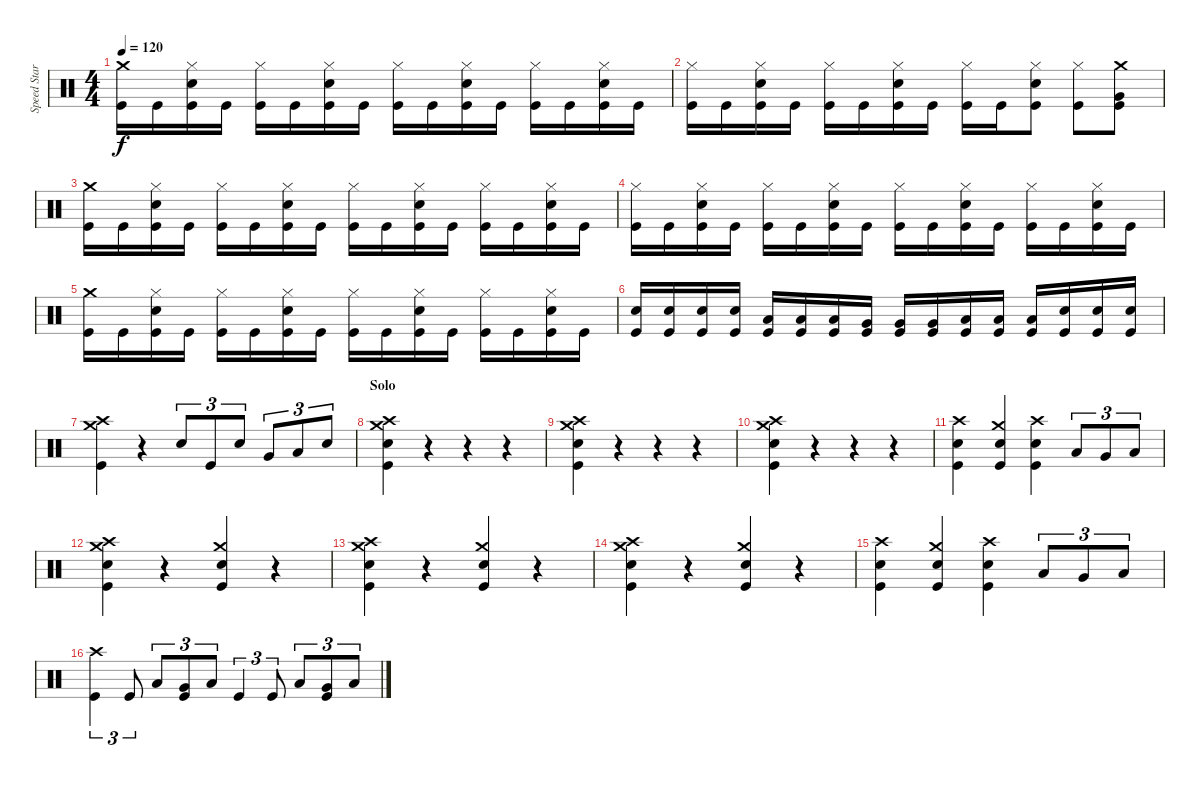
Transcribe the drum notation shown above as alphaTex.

\track ("Speed Star" "Speed Star") {instrument percussion}
\staff {score}
\articulation defaults
\ts (4 4)
\tempo 120
\clef neutral
\ks c
("Kick (hit)" "Crash medium (hit)").16{dy f} "Kick (hit)".16 ("Kick (hit)" "Snare (hit) 2" "Hi-Hat (closed)").16 "Kick (hit)".16 ("Kick (hit)" "Hi-Hat (closed)").16 "Kick (hit)".16 ("Kick (hit)" "Snare (hit) 2" "Hi-Hat (closed)").16 "Kick (hit)".16 ("Kick (hit)" "Hi-Hat (closed)").16 "Kick (hit)".16 ("Kick (hit)" "Snare (hit) 2" "Hi-Hat (closed)").16 "Kick (hit)".16 ("Kick (hit)" "Hi-Hat (closed)").16 "Kick (hit)".16 ("Kick (hit)" "Snare (hit) 2" "Hi-Hat (closed)").16 "Kick (hit)".16 |
("Kick (hit)" "Hi-Hat (closed)").16 "Kick (hit)".16 ("Kick (hit)" "Snare (hit) 2" "Hi-Hat (closed)").16 "Kick (hit)".16 ("Kick (hit)" "Hi-Hat (closed)").16 "Kick (hit)".16 ("Kick (hit)" "Snare (hit) 2" "Hi-Hat (closed)").16 "Kick (hit)".16 ("Kick (hit)" "Hi-Hat (closed)").16 "Kick (hit)".16 ("Kick (hit)" "Snare (hit) 2" "Hi-Hat (closed)").8 ("Kick (hit)" "Hi-Hat (closed)").8 ("Kick (hit)" "Very Low Tom (hit)" "Crash medium (hit)").8 |
("Kick (hit)" "Crash medium (hit)").16 "Kick (hit)".16 ("Kick (hit)" "Snare (hit) 2" "Hi-Hat (closed)").16 "Kick (hit)".16 ("Kick (hit)" "Hi-Hat (closed)").16 "Kick (hit)".16 ("Kick (hit)" "Snare (hit) 2" "Hi-Hat (closed)").16 "Kick (hit)".16 ("Kick (hit)" "Hi-Hat (closed)").16 "Kick (hit)".16 ("Kick (hit)" "Snare (hit) 2" "Hi-Hat (closed)").16 "Kick (hit)".16 ("Kick (hit)" "Hi-Hat (closed)").16 "Kick (hit)".16 ("Kick (hit)" "Snare (hit) 2" "Hi-Hat (closed)").16 "Kick (hit)".16 |
("Kick (hit)" "Hi-Hat (closed)").16 "Kick (hit)".16 ("Kick (hit)" "Snare (hit) 2" "Hi-Hat (closed)").16 "Kick (hit)".16 ("Kick (hit)" "Hi-Hat (closed)").16 "Kick (hit)".16 ("Kick (hit)" "Snare (hit) 2" "Hi-Hat (closed)").16 "Kick (hit)".16 ("Kick (hit)" "Hi-Hat (closed)").16 "Kick (hit)".16 ("Kick (hit)" "Snare (hit) 2" "Hi-Hat (closed)").16 "Kick (hit)".16 ("Kick (hit)" "Hi-Hat (closed)").16 "Kick (hit)".16 ("Kick (hit)" "Snare (hit) 2" "Hi-Hat (closed)").16 "Kick (hit)".16 |
("Kick (hit)" "Crash medium (hit)").16 "Kick (hit)".16 ("Kick (hit)" "Snare (hit) 2" "Hi-Hat (closed)").16 "Kick (hit)".16 ("Kick (hit)" "Hi-Hat (closed)").16 "Kick (hit)".16 ("Kick (hit)" "Snare (hit) 2" "Hi-Hat (closed)").16 "Kick (hit)".16 ("Kick (hit)" "Hi-Hat (closed)").16 "Kick (hit)".16 ("Kick (hit)" "Snare (hit) 2" "Hi-Hat (closed)").16 "Kick (hit)".16 ("Kick (hit)" "Hi-Hat (closed)").16 "Kick (hit)".16 ("Kick (hit)" "Snare (hit) 2" "Hi-Hat (closed)").16 "Kick (hit)".16 |
("Kick (hit)" "Snare (hit) 2").16 ("Kick (hit)" "Snare (hit) 2").16 ("Kick (hit)" "Snare (hit) 2").16 ("Kick (hit)" "Snare (hit) 2").16 ("Kick (hit)" "Low Floor Tom (hit)").16 ("Kick (hit)" "Low Floor Tom (hit)").16 ("Kick (hit)" "Low Floor Tom (hit)").16 ("Kick (hit)" "Very Low Tom (hit)").16 ("Kick (hit)" "Very Low Tom (hit)").16 ("Kick (hit)" "Very Low Tom (hit)").16 ("Kick (hit)" "Low Tom (hit)").16 ("Kick (hit)" "Low Tom (hit)").16 ("Kick (hit)" "Low Tom (hit)").16 ("Kick (hit)" "Snare (hit) 2").16 ("Kick (hit)" "Snare (hit) 2").16 ("Kick (hit)" "Snare (hit) 2").16 |
("Kick (hit)" "Crash high (hit)" "Crash medium (hit)").4 r.4 "Snare (hit) 2".8{tu (3 2)} "Kick (hit)".8{tu (3 2)} "Snare (hit) 2".8{tu (3 2)} "Very Low Tom (hit)".8{tu (3 2)} "Low Floor Tom (hit)".8{tu (3 2)} "Snare (hit) 2".8{tu (3 2)} |
\section ("" "Solo")
("Kick (hit)" "Snare (hit) 2" "Crash high (hit)" "Crash medium (hit)").4 r.4 r.4 r.4 |
("Kick (hit)" "Snare (hit) 2" "Crash high (hit)" "Crash medium (hit)").4 r.4 r.4 r.4 |
("Kick (hit)" "Snare (hit) 2" "Crash high (hit)" "Crash medium (hit)").4 r.4 r.4 r.4 |
("Kick (hit)" "Snare (hit) 2" "Crash high (hit)").4 ("Kick (hit)" "Snare (hit) 2" "Crash medium (hit)").4 ("Kick (hit)" "Snare (hit) 2" "Crash high (hit)").4 "Low Tom (hit)".8{tu (3 2)} "Very Low Tom (hit)".8{tu (3 2)} "Low Floor Tom (hit)".8{tu (3 2)} |
("Kick (hit)" "Snare (hit) 2" "Crash high (hit)" "Crash medium (hit)").4 r.4 ("Kick (hit)" "Snare (hit) 2" "Crash medium (hit)").4 r.4 |
("Kick (hit)" "Snare (hit) 2" "Crash high (hit)" "Crash medium (hit)").4 r.4 ("Kick (hit)" "Snare (hit) 2" "Crash medium (hit)").4 r.4 |
("Kick (hit)" "Snare (hit) 2" "Crash high (hit)" "Crash medium (hit)").4 r.4 ("Kick (hit)" "Snare (hit) 2" "Crash medium (hit)").4 r.4 |
("Kick (hit)" "Snare (hit) 2" "Crash high (hit)").4 ("Kick (hit)" "Snare (hit) 2" "Crash medium (hit)").4 ("Kick (hit)" "Snare (hit) 2" "Crash high (hit)").4 "Low Tom (hit)".8{tu (3 2)} "Very Low Tom (hit)".8{tu (3 2)} "Low Floor Tom (hit)".8{tu (3 2)} |
("Kick (hit)" "Crash high (hit)").4{tu (3 2)} "Kick (hit)".8{tu (3 2)} "Low Tom (hit)".8{tu (3 2)} ("Kick (hit)" "Very Low Tom (hit)").8{tu (3 2)} "Low Floor Tom (hit)".8{tu (3 2)} "Kick (hit)".4{tu (3 2)} "Kick (hit)".8{tu (3 2)} "Low Tom (hit)".8{tu (3 2)} ("Kick (hit)" "Very Low Tom (hit)").8{tu (3 2)} "Low Floor Tom (hit)".8{tu (3 2)}
